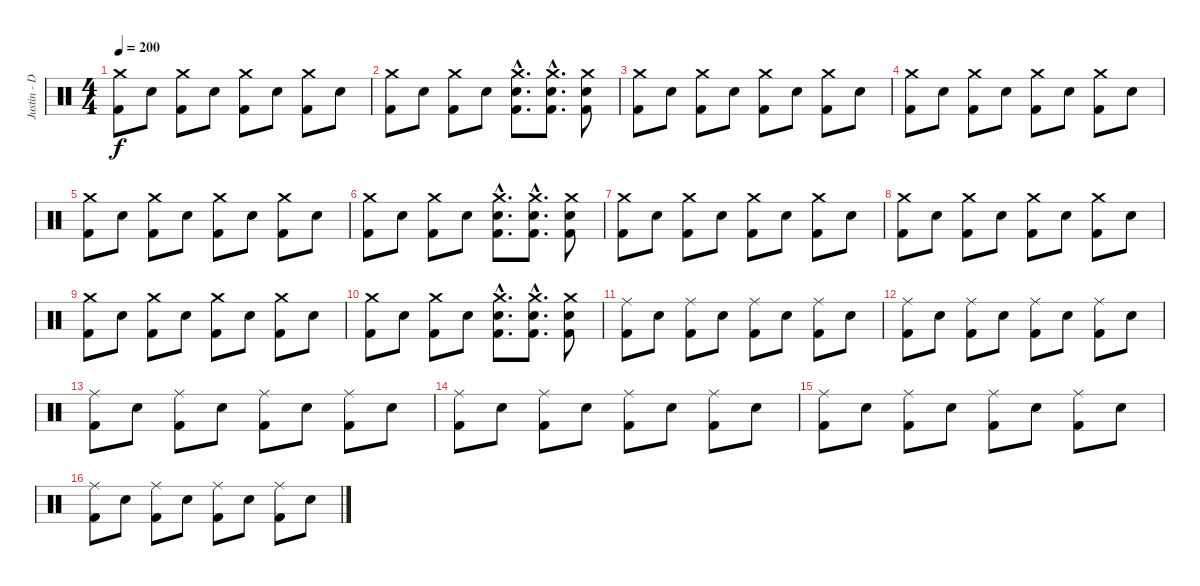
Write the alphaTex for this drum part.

\track ("Justin - Drums" "Justin - D") {instrument percussion}
\staff {score}
\articulation defaults
\ts (4 4)
\tempo 200
\clef neutral
\ks c
("Crash medium (hit)" "Kick (hit) 2").8{dy f} "Snare (hit) 2".8 ("Crash medium (hit)" "Kick (hit) 2").8 "Snare (hit) 2".8 ("Crash medium (hit)" "Kick (hit) 2").8 "Snare (hit) 2".8 ("Crash medium (hit)" "Kick (hit) 2").8 "Snare (hit) 2".8 |
("Crash medium (hit)" "Kick (hit) 2").8 "Snare (hit) 2".8 ("Crash medium (hit)" "Kick (hit) 2").8 "Snare (hit) 2".8 ("Crash medium (hit)"{hac} "Snare (hit) 2"{hac} "Kick (hit) 2"{hac}).8{d} ("Crash medium (hit)"{hac} "Snare (hit) 2"{hac} "Kick (hit) 2"{hac}).8{d} ("Crash medium (hit)" "Snare (hit) 2" "Kick (hit) 2").8 |
("Crash medium (hit)" "Kick (hit) 2").8 "Snare (hit) 2".8 ("Crash medium (hit)" "Kick (hit) 2").8 "Snare (hit) 2".8 ("Crash medium (hit)" "Kick (hit) 2").8 "Snare (hit) 2".8 ("Crash medium (hit)" "Kick (hit) 2").8 "Snare (hit) 2".8 |
("Crash medium (hit)" "Kick (hit) 2").8 "Snare (hit) 2".8 ("Crash medium (hit)" "Kick (hit) 2").8 "Snare (hit) 2".8 ("Crash medium (hit)" "Kick (hit) 2").8 "Snare (hit) 2".8 ("Crash medium (hit)" "Kick (hit) 2").8 "Snare (hit) 2".8 |
("Crash medium (hit)" "Kick (hit) 2").8 "Snare (hit) 2".8 ("Crash medium (hit)" "Kick (hit) 2").8 "Snare (hit) 2".8 ("Crash medium (hit)" "Kick (hit) 2").8 "Snare (hit) 2".8 ("Crash medium (hit)" "Kick (hit) 2").8 "Snare (hit) 2".8 |
("Crash medium (hit)" "Kick (hit) 2").8 "Snare (hit) 2".8 ("Crash medium (hit)" "Kick (hit) 2").8 "Snare (hit) 2".8 ("Crash medium (hit)"{hac} "Snare (hit) 2"{hac} "Kick (hit) 2"{hac}).8{d} ("Crash medium (hit)"{hac} "Snare (hit) 2"{hac} "Kick (hit) 2"{hac}).8{d} ("Crash medium (hit)" "Snare (hit) 2" "Kick (hit) 2").8 |
("Crash medium (hit)" "Kick (hit) 2").8 "Snare (hit) 2".8 ("Crash medium (hit)" "Kick (hit) 2").8 "Snare (hit) 2".8 ("Crash medium (hit)" "Kick (hit) 2").8 "Snare (hit) 2".8 ("Crash medium (hit)" "Kick (hit) 2").8 "Snare (hit) 2".8 |
("Crash medium (hit)" "Kick (hit) 2").8 "Snare (hit) 2".8 ("Crash medium (hit)" "Kick (hit) 2").8 "Snare (hit) 2".8 ("Crash medium (hit)" "Kick (hit) 2").8 "Snare (hit) 2".8 ("Crash medium (hit)" "Kick (hit) 2").8 "Snare (hit) 2".8 |
("Crash medium (hit)" "Kick (hit) 2").8 "Snare (hit) 2".8 ("Crash medium (hit)" "Kick (hit) 2").8 "Snare (hit) 2".8 ("Crash medium (hit)" "Kick (hit) 2").8 "Snare (hit) 2".8 ("Crash medium (hit)" "Kick (hit) 2").8 "Snare (hit) 2".8 |
("Crash medium (hit)" "Kick (hit) 2").8 "Snare (hit) 2".8 ("Crash medium (hit)" "Kick (hit) 2").8 "Snare (hit) 2".8 ("Crash medium (hit)"{hac} "Snare (hit) 2"{hac} "Kick (hit) 2"{hac}).8{d} ("Crash medium (hit)"{hac} "Snare (hit) 2"{hac} "Kick (hit) 2"{hac}).8{d} ("Crash medium (hit)" "Snare (hit) 2" "Kick (hit) 2").8 |
("Ride (middle)" "Kick (hit) 2").8 "Snare (hit) 2".8 ("Ride (middle)" "Kick (hit) 2").8 "Snare (hit) 2".8 ("Ride (middle)" "Kick (hit) 2").8 "Snare (hit) 2".8 ("Ride (middle)" "Kick (hit) 2").8 "Snare (hit) 2".8 |
("Ride (middle)" "Kick (hit) 2").8 "Snare (hit) 2".8 ("Ride (middle)" "Kick (hit) 2").8 "Snare (hit) 2".8 ("Ride (middle)" "Kick (hit) 2").8 "Snare (hit) 2".8 ("Ride (middle)" "Kick (hit) 2").8 "Snare (hit) 2".8 |
("Ride (middle)" "Kick (hit) 2").8 "Snare (hit) 2".8 ("Ride (middle)" "Kick (hit) 2").8 "Snare (hit) 2".8 ("Ride (middle)" "Kick (hit) 2").8 "Snare (hit) 2".8 ("Ride (middle)" "Kick (hit) 2").8 "Snare (hit) 2".8 |
("Ride (middle)" "Kick (hit) 2").8 "Snare (hit) 2".8 ("Ride (middle)" "Kick (hit) 2").8 "Snare (hit) 2".8 ("Ride (middle)" "Kick (hit) 2").8 "Snare (hit) 2".8 ("Ride (middle)" "Kick (hit) 2").8 "Snare (hit) 2".8 |
("Ride (middle)" "Kick (hit) 2").8 "Snare (hit) 2".8 ("Ride (middle)" "Kick (hit) 2").8 "Snare (hit) 2".8 ("Ride (middle)" "Kick (hit) 2").8 "Snare (hit) 2".8 ("Ride (middle)" "Kick (hit) 2").8 "Snare (hit) 2".8 |
("Ride (middle)" "Kick (hit) 2").8 "Snare (hit) 2".8 ("Ride (middle)" "Kick (hit) 2").8 "Snare (hit) 2".8 ("Ride (middle)" "Kick (hit) 2").8 "Snare (hit) 2".8 ("Ride (middle)" "Kick (hit) 2").8 "Snare (hit) 2".8
